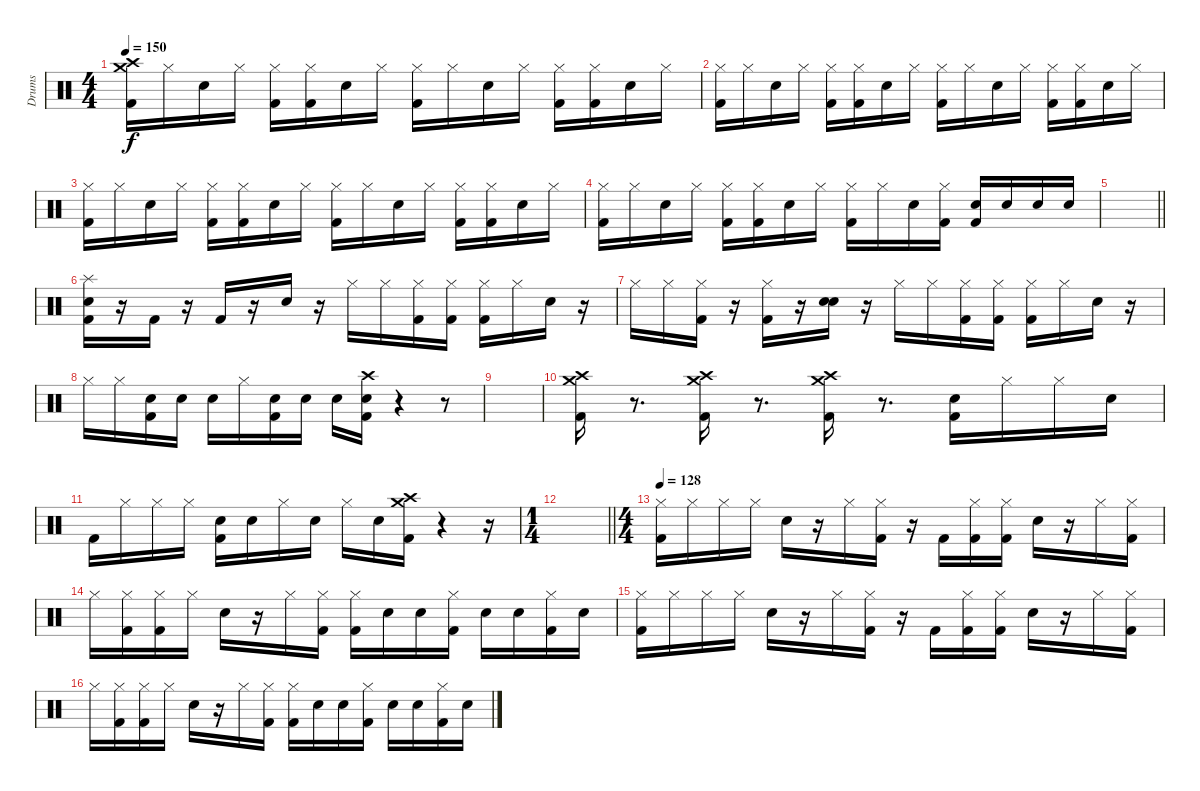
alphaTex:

\track ("Drums" "Drums") {instrument percussion}
\staff {score}
\articulation defaults
\ts (4 4)
\tempo 150
\clef neutral
\ks c
("Crash medium (hit)" "Crash high (hit)" "Kick (hit) 2").16{dy f} "Hi-Hat (closed)".16 "Snare (hit) 2".16 "Hi-Hat (closed)".16 ("Hi-Hat (closed)" "Kick (hit) 2").16 ("Hi-Hat (closed)" "Kick (hit) 2").16 "Snare (hit) 2".16 "Hi-Hat (closed)".16 ("Hi-Hat (closed)" "Kick (hit) 2").16 "Hi-Hat (closed)".16 "Snare (hit) 2".16 "Hi-Hat (closed)".16 ("Hi-Hat (closed)" "Kick (hit) 2").16 ("Hi-Hat (closed)" "Kick (hit) 2").16 "Snare (hit) 2".16 "Hi-Hat (closed)".16 |
("Hi-Hat (closed)" "Kick (hit) 2").16 "Hi-Hat (closed)".16 "Snare (hit) 2".16 "Hi-Hat (closed)".16 ("Hi-Hat (closed)" "Kick (hit) 2").16 ("Hi-Hat (closed)" "Kick (hit) 2").16 "Snare (hit) 2".16 "Hi-Hat (closed)".16 ("Hi-Hat (closed)" "Kick (hit) 2").16 "Hi-Hat (closed)".16 "Snare (hit) 2".16 "Hi-Hat (closed)".16 ("Hi-Hat (closed)" "Kick (hit) 2").16 ("Hi-Hat (closed)" "Kick (hit) 2").16 "Snare (hit) 2".16 "Hi-Hat (closed)".16 |
("Hi-Hat (closed)" "Kick (hit) 2").16{volume 0} "Hi-Hat (closed)".16 "Snare (hit) 2".16 "Hi-Hat (closed)".16 ("Hi-Hat (closed)" "Kick (hit) 2").16 ("Hi-Hat (closed)" "Kick (hit) 2").16 "Snare (hit) 2".16 "Hi-Hat (closed)".16 ("Hi-Hat (closed)" "Kick (hit) 2").16 "Hi-Hat (closed)".16 "Snare (hit) 2".16 "Hi-Hat (closed)".16 ("Hi-Hat (closed)" "Kick (hit) 2").16 ("Hi-Hat (closed)" "Kick (hit) 2").16 "Snare (hit) 2".16 "Hi-Hat (closed)".16 |
("Hi-Hat (closed)" "Kick (hit) 2").16 "Hi-Hat (closed)".16 "Snare (hit) 2".16 "Hi-Hat (closed)".16 ("Hi-Hat (closed)" "Kick (hit) 2").16 ("Hi-Hat (closed)" "Kick (hit) 2").16 "Snare (hit) 2".16 "Hi-Hat (closed)".16 ("Hi-Hat (closed)" "Kick (hit) 2").16 "Hi-Hat (closed)".16 "Snare (hit) 2".16 ("Hi-Hat (closed)" "Kick (hit) 2").16 ("Snare (hit) 2" "Kick (hit) 2").16 "Snare (hit) 2".16 "Snare (hit) 2".16 "Snare (hit) 2".16 |
\barLineRight lightlight
|
\section ("" "")
("Splash (hit)" "Snare (hit) 2" "Kick (hit) 2").16{volume 13} r.16 "Kick (hit) 2".16 r.16 "Kick (hit) 2".16 r.16 "Snare (hit) 2".16 r.16 "Hi-Hat (closed)".16 "Hi-Hat (closed)".16 ("Hi-Hat (closed)" "Kick (hit) 2").16 ("Hi-Hat (closed)" "Kick (hit) 2").16 ("Hi-Hat (closed)" "Kick (hit) 2").16 "Hi-Hat (closed)".16 "Snare (hit) 2".16 r.16 |
"Hi-Hat (closed)".16 "Hi-Hat (closed)".16 ("Hi-Hat (closed)" "Kick (hit) 2").16 r.16 ("Hi-Hat (closed)" "Kick (hit) 2").16 r.16 ("Snare (hit) 2" "Snare (hit) 2").16 r.16 "Hi-Hat (closed)".16 "Hi-Hat (closed)".16 ("Hi-Hat (closed)" "Kick (hit) 2").16 ("Hi-Hat (closed)" "Kick (hit) 2").16 ("Hi-Hat (closed)" "Kick (hit) 2").16 "Hi-Hat (closed)".16 "Snare (hit) 2".16 r.16 |
"Hi-Hat (closed)".16 "Hi-Hat (closed)".16 ("Snare (hit) 2" "Kick (hit) 2").16 "Snare (hit) 2".16 "Snare (hit) 2".16 "Hi-Hat (closed)".16 ("Snare (hit) 2" "Kick (hit) 2").16 "Snare (hit) 2".16 "Snare (hit) 2".16 ("Crash high (hit)" "Snare (hit) 2" "Kick (hit) 2").16 r.4 r.8 |
|
("Crash medium (hit)" "Crash high (hit)" "Kick (hit) 2").16 r.8{d} ("Crash medium (hit)" "Crash high (hit)" "Kick (hit) 2").16 r.8{d} ("Crash medium (hit)" "Crash high (hit)" "Kick (hit) 2").16 r.8{d} ("Snare (hit) 2" "Kick (hit) 2").16 "Hi-Hat (closed)".16 "Hi-Hat (closed)".16 "Snare (hit) 2".16 |
"Kick (hit) 2".16 "Hi-Hat (closed)".16 "Hi-Hat (closed)".16 "Hi-Hat (closed)".16 ("Snare (hit) 2" "Kick (hit) 2").16 "Snare (hit) 2".16 "Hi-Hat (closed)".16 "Snare (hit) 2".16 "Hi-Hat (closed)".16 "Snare (hit) 2".16 ("Crash medium (hit)" "Crash high (hit)" "Kick (hit) 2").16 r.4 r.16 |
\ts (1 4)
\barLineRight lightlight
|
\ts (4 4)
\section ("" "")
\tempo 128
("Hi-Hat (closed)" "Kick (hit) 2").16 "Hi-Hat (closed)".16 "Hi-Hat (closed)".16 "Hi-Hat (closed)".16 "Snare (hit) 2".16 r.16 "Hi-Hat (closed)".16 ("Hi-Hat (closed)" "Kick (hit) 2").16 r.16 "Kick (hit) 2".16 ("Hi-Hat (closed)" "Kick (hit) 2").16 ("Hi-Hat (closed)" "Kick (hit) 2").16 "Snare (hit) 2".16 r.16 "Hi-Hat (closed)".16 ("Hi-Hat (closed)" "Kick (hit) 2").16 |
"Hi-Hat (closed)".16 ("Hi-Hat (closed)" "Kick (hit) 2").16 ("Hi-Hat (closed)" "Kick (hit) 2").16 "Hi-Hat (closed)".16 "Snare (hit) 2".16 r.16 "Hi-Hat (closed)".16 ("Hi-Hat (closed)" "Kick (hit) 2").16 ("Hi-Hat (closed)" "Kick (hit) 2").16 "Snare (hit) 2".16 "Snare (hit) 2".16 ("Hi-Hat (closed)" "Kick (hit) 2").16 "Snare (hit) 2".16 "Snare (hit) 2".16 ("Hi-Hat (closed)" "Kick (hit) 2").16 "Snare (hit) 2".16 |
("Hi-Hat (closed)" "Kick (hit) 2").16 "Hi-Hat (closed)".16 "Hi-Hat (closed)".16 "Hi-Hat (closed)".16 "Snare (hit) 2".16 r.16 "Hi-Hat (closed)".16 ("Hi-Hat (closed)" "Kick (hit) 2").16 r.16 "Kick (hit) 2".16 ("Hi-Hat (closed)" "Kick (hit) 2").16 ("Hi-Hat (closed)" "Kick (hit) 2").16 "Snare (hit) 2".16 r.16 "Hi-Hat (closed)".16 ("Hi-Hat (closed)" "Kick (hit) 2").16 |
"Hi-Hat (closed)".16 ("Hi-Hat (closed)" "Kick (hit) 2").16 ("Hi-Hat (closed)" "Kick (hit) 2").16 "Hi-Hat (closed)".16 "Snare (hit) 2".16 r.16 "Hi-Hat (closed)".16 ("Hi-Hat (closed)" "Kick (hit) 2").16 ("Hi-Hat (closed)" "Kick (hit) 2").16 "Snare (hit) 2".16 "Snare (hit) 2".16 ("Hi-Hat (closed)" "Kick (hit) 2").16 "Snare (hit) 2".16 "Snare (hit) 2".16 ("Hi-Hat (closed)" "Kick (hit) 2").16 "Snare (hit) 2".16
